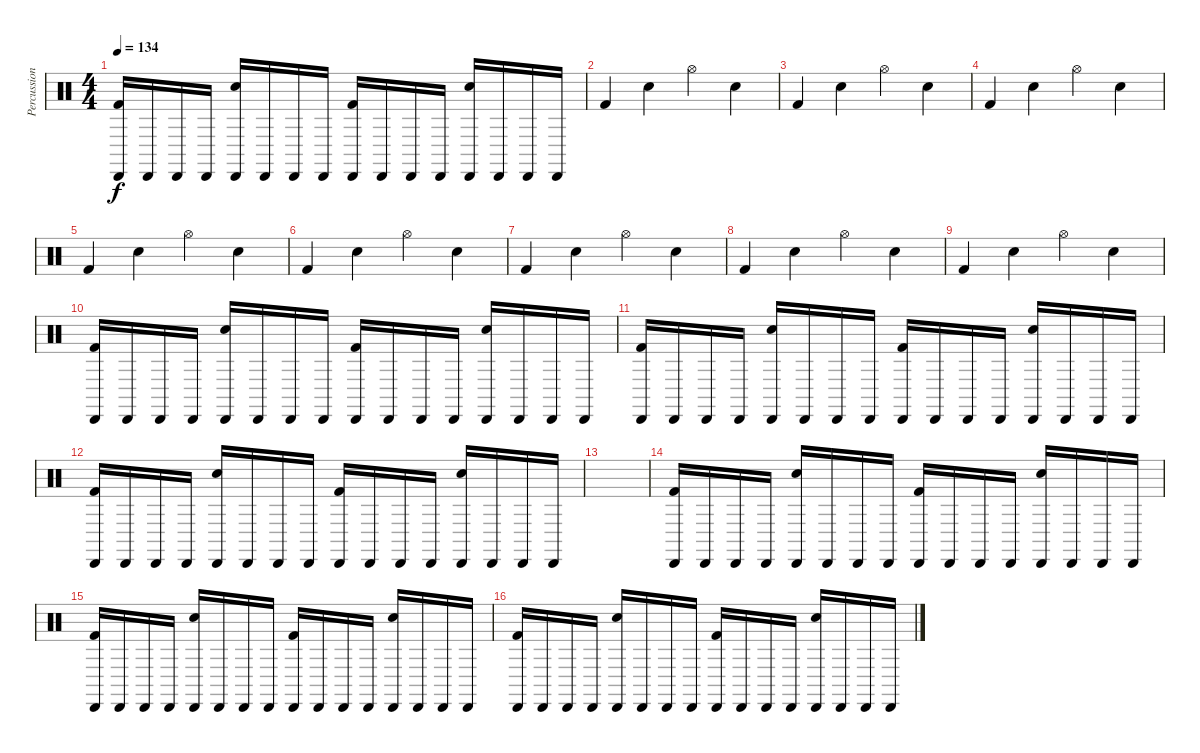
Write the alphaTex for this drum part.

\track ("Percussion" "Percussion") {instrument percussion}
\staff {score}
\articulation defaults
\ts (4 4)
\tempo 134
\clef neutral
\ks c
("Cabasa (hit)" "Kick (hit) 2").16{dy f} "Cabasa (hit)".16 "Cabasa (hit)".16 "Cabasa (hit)".16 ("Cabasa (hit)" "Snare (hit) 2").16 "Cabasa (hit)".16 "Cabasa (hit)".16 "Cabasa (hit)".16 ("Cabasa (hit)" "Kick (hit) 2").16 "Cabasa (hit)".16 "Cabasa (hit)".16 "Cabasa (hit)".16 ("Cabasa (hit)" "Snare (hit) 2").16 "Cabasa (hit)".16 "Cabasa (hit)".16 "Cabasa (hit)".16 |
"Kick (hit) 2".4 "Snare (hit) 2".4 "Hi-Hat (open)".4 "Snare (hit) 2".4 |
"Kick (hit) 2".4 "Snare (hit) 2".4 "Hi-Hat (open)".4 "Snare (hit) 2".4 |
"Kick (hit) 2".4 "Snare (hit) 2".4 "Hi-Hat (open)".4 "Snare (hit) 2".4 |
"Kick (hit) 2".4 "Snare (hit) 2".4 "Hi-Hat (open)".4 "Snare (hit) 2".4 |
"Kick (hit) 2".4 "Snare (hit) 2".4 "Hi-Hat (open)".4 "Snare (hit) 2".4 |
"Kick (hit) 2".4 "Snare (hit) 2".4 "Hi-Hat (open)".4 "Snare (hit) 2".4 |
"Kick (hit) 2".4 "Snare (hit) 2".4 "Hi-Hat (open)".4 "Snare (hit) 2".4 |
"Kick (hit) 2".4 "Snare (hit) 2".4 "Hi-Hat (open)".4 "Snare (hit) 2".4 |
("Cabasa (hit)" "Kick (hit) 2").16 "Cabasa (hit)".16 "Cabasa (hit)".16 "Cabasa (hit)".16 ("Cabasa (hit)" "Snare (hit) 2").16 "Cabasa (hit)".16 "Cabasa (hit)".16 "Cabasa (hit)".16 ("Cabasa (hit)" "Kick (hit) 2").16 "Cabasa (hit)".16 "Cabasa (hit)".16 "Cabasa (hit)".16 ("Cabasa (hit)" "Snare (hit) 2").16 "Cabasa (hit)".16 "Cabasa (hit)".16 "Cabasa (hit)".16 |
("Cabasa (hit)" "Kick (hit) 2").16 "Cabasa (hit)".16 "Cabasa (hit)".16 "Cabasa (hit)".16 ("Cabasa (hit)" "Snare (hit) 2").16 "Cabasa (hit)".16 "Cabasa (hit)".16 "Cabasa (hit)".16 ("Cabasa (hit)" "Kick (hit) 2").16 "Cabasa (hit)".16 "Cabasa (hit)".16 "Cabasa (hit)".16 ("Cabasa (hit)" "Snare (hit) 2").16 "Cabasa (hit)".16 "Cabasa (hit)".16 "Cabasa (hit)".16 |
("Cabasa (hit)" "Kick (hit) 2").16 "Cabasa (hit)".16 "Cabasa (hit)".16 "Cabasa (hit)".16 ("Cabasa (hit)" "Snare (hit) 2").16 "Cabasa (hit)".16 "Cabasa (hit)".16 "Cabasa (hit)".16 ("Cabasa (hit)" "Kick (hit) 2").16 "Cabasa (hit)".16 "Cabasa (hit)".16 "Cabasa (hit)".16 ("Cabasa (hit)" "Snare (hit) 2").16 "Cabasa (hit)".16 "Cabasa (hit)".16 "Cabasa (hit)".16 |
|
("Cabasa (hit)" "Kick (hit) 2").16 "Cabasa (hit)".16 "Cabasa (hit)".16 "Cabasa (hit)".16 ("Cabasa (hit)" "Snare (hit) 2").16 "Cabasa (hit)".16 "Cabasa (hit)".16 "Cabasa (hit)".16 ("Cabasa (hit)" "Kick (hit) 2").16 "Cabasa (hit)".16 "Cabasa (hit)".16 "Cabasa (hit)".16 ("Cabasa (hit)" "Snare (hit) 2").16 "Cabasa (hit)".16 "Cabasa (hit)".16 "Cabasa (hit)".16 |
("Cabasa (hit)" "Kick (hit) 2").16 "Cabasa (hit)".16 "Cabasa (hit)".16 "Cabasa (hit)".16 ("Cabasa (hit)" "Snare (hit) 2").16 "Cabasa (hit)".16 "Cabasa (hit)".16 "Cabasa (hit)".16 ("Cabasa (hit)" "Kick (hit) 2").16 "Cabasa (hit)".16 "Cabasa (hit)".16 "Cabasa (hit)".16 ("Cabasa (hit)" "Snare (hit) 2").16 "Cabasa (hit)".16 "Cabasa (hit)".16 "Cabasa (hit)".16 |
("Cabasa (hit)" "Kick (hit) 2").16 "Cabasa (hit)".16 "Cabasa (hit)".16 "Cabasa (hit)".16 ("Cabasa (hit)" "Snare (hit) 2").16 "Cabasa (hit)".16 "Cabasa (hit)".16 "Cabasa (hit)".16 ("Cabasa (hit)" "Kick (hit) 2").16 "Cabasa (hit)".16 "Cabasa (hit)".16 "Cabasa (hit)".16 ("Cabasa (hit)" "Snare (hit) 2").16 "Cabasa (hit)".16 "Cabasa (hit)".16 "Cabasa (hit)".16
